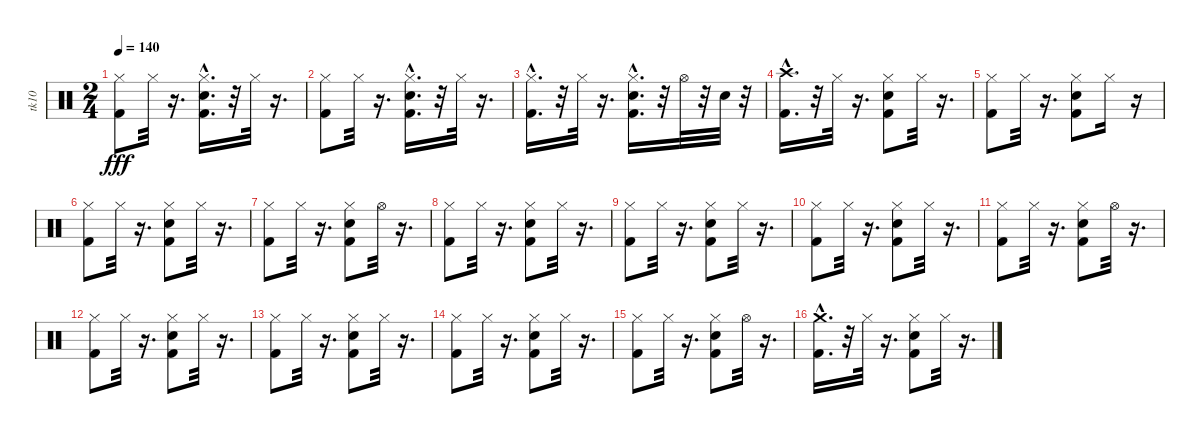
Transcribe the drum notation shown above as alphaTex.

\track ("tk10" "tk10") {instrument percussion}
\staff {score}
\articulation defaults
\ts (2 4)
\tempo 140
\clef neutral
\ks c
("Kick (hit) 2" "Hi-Hat (closed)").8{dy fff} "Hi-Hat (closed)".32 r.16{d} ("Snare (hit) 2"{hac} "Kick (hit) 2"{hac} "Hi-Hat (closed)").16{d} r.32 "Hi-Hat (closed)".32 r.16{d} |
("Kick (hit) 2" "Hi-Hat (closed)").8 "Hi-Hat (closed)".32 r.16{d} ("Hi-Hat (closed)" "Snare (hit) 2"{hac} "Kick (hit) 2"{hac}).16{d} r.32 "Hi-Hat (closed)".32 r.16{d} |
("Kick (hit) 2"{hac} "Hi-Hat (closed)").16{d} r.32 "Hi-Hat (closed)".32 r.16{d} ("Snare (hit) 2"{hac} "Kick (hit) 2"{hac} "Hi-Hat (closed)").16{d} r.32 "Hi-Hat (open)".32 r.32 "Snare (hit) 2".32 r.32 |
("Kick (hit) 2"{hac} "Crash high (hit)").16{d} r.32 "Hi-Hat (closed)".32 r.16{d} ("Kick (hit) 2" "Snare (hit) 2" "Hi-Hat (closed)").8 "Hi-Hat (closed)".32 r.16{d} |
("Kick (hit) 2" "Hi-Hat (closed)").8 "Hi-Hat (closed)".32 r.16{d} ("Snare (hit) 2" "Kick (hit) 2" "Hi-Hat (closed)").8 "Hi-Hat (closed)".16 r.16 |
("Kick (hit) 2" "Hi-Hat (closed)").8 "Hi-Hat (closed)".32 r.16{d} ("Snare (hit) 2" "Kick (hit) 2" "Hi-Hat (closed)").8 "Hi-Hat (closed)".32 r.16{d} |
("Kick (hit) 2" "Hi-Hat (closed)").8 "Hi-Hat (closed)".32 r.16{d} ("Kick (hit) 2" "Snare (hit) 2" "Hi-Hat (closed)").8 "Hi-Hat (open)".32 r.16{d} |
("Kick (hit) 2" "Hi-Hat (closed)").8 "Hi-Hat (closed)".32 r.16{d} ("Snare (hit) 2" "Kick (hit) 2" "Hi-Hat (closed)").8 "Hi-Hat (closed)".32 r.16{d} |
("Kick (hit) 2" "Hi-Hat (closed)").8 "Hi-Hat (closed)".32 r.16{d} ("Snare (hit) 2" "Kick (hit) 2" "Hi-Hat (closed)").8 "Hi-Hat (closed)".32 r.16{d} |
("Kick (hit) 2" "Hi-Hat (closed)").8 "Hi-Hat (closed)".32 r.16{d} ("Hi-Hat (closed)" "Snare (hit) 2" "Kick (hit) 2").8 "Hi-Hat (closed)".32 r.16{d} |
("Kick (hit) 2" "Hi-Hat (closed)").8 "Hi-Hat (closed)".32 r.16{d} ("Kick (hit) 2" "Hi-Hat (closed)" "Snare (hit) 2").8 "Hi-Hat (open)".32 r.16{d} |
("Kick (hit) 2" "Hi-Hat (closed)").8 "Hi-Hat (closed)".32 r.16{d} ("Kick (hit) 2" "Hi-Hat (closed)" "Snare (hit) 2").8 "Hi-Hat (closed)".32 r.16{d} |
("Kick (hit) 2" "Hi-Hat (closed)").8 "Hi-Hat (closed)".32 r.16{d} ("Snare (hit) 2" "Kick (hit) 2" "Hi-Hat (closed)").8 "Hi-Hat (closed)".32 r.16{d} |
("Kick (hit) 2" "Hi-Hat (closed)").8 "Hi-Hat (closed)".32 r.16{d} ("Kick (hit) 2" "Hi-Hat (closed)" "Snare (hit) 2").8 "Hi-Hat (closed)".32 r.16{d} |
("Kick (hit) 2" "Hi-Hat (closed)").8 "Hi-Hat (closed)".32 r.16{d} ("Kick (hit) 2" "Hi-Hat (closed)" "Snare (hit) 2").8 "Hi-Hat (open)".32 r.16{d} |
("Kick (hit) 2"{hac} "Crash medium (hit)").16{d} r.32 "Hi-Hat (closed)".32 r.16{d} ("Kick (hit) 2" "Snare (hit) 2" "Hi-Hat (closed)").8 "Hi-Hat (closed)".32 r.16{d}
